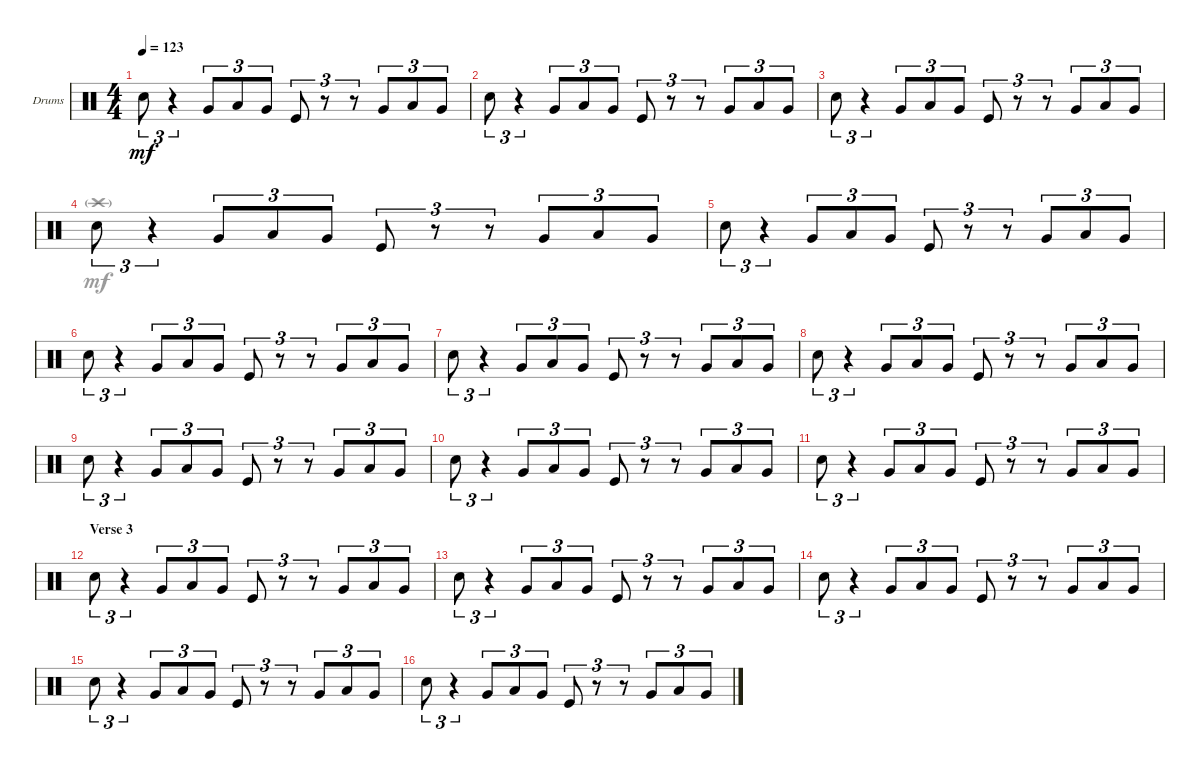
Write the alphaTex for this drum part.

\defaultSystemsLayout 4
\bracketExtendMode groupsimilarinstruments
\firstSystemTrackNameOrientation horizontal
\otherSystemsTrackNameOrientation horizontal
\track ("Drumkit" "Drums") {multiBarRest instrument percussion}
\staff {score}
\articulation defaults
\voice
\ts (4 4)
\tempo 123
\clef neutral
\ks c "Snare (hit) 2".8{tu (3 2) dy mf}
r.4{tu (3 2)} "Very Low Tom (hit)".8{tu (3 2)} "Low Tom (hit)".8{tu (3 2)} "Very Low Tom (hit)".8{tu (3 2)} "Kick (hit)".8{tu (3 2)} r.8{tu (3 2)} r.8{tu (3 2)} "Very Low Tom (hit)".8{tu (3 2)} "Low Tom (hit)".8{tu (3 2)} "Very Low Tom (hit)".8{tu (3 2)} |
"Snare (hit) 2".8{tu (3 2)} r.4{tu (3 2)} "Very Low Tom (hit)".8{tu (3 2)} "Low Tom (hit)".8{tu (3 2)} "Very Low Tom (hit)".8{tu (3 2)} "Kick (hit)".8{tu (3 2)} r.8{tu (3 2)} r.8{tu (3 2)} "Very Low Tom (hit)".8{tu (3 2)} "Low Tom (hit)".8{tu (3 2)} "Very Low Tom (hit)".8{tu (3 2)} |
"Snare (hit) 2".8{tu (3 2)} r.4{tu (3 2)} "Very Low Tom (hit)".8{tu (3 2)} "Low Tom (hit)".8{tu (3 2)} "Very Low Tom (hit)".8{tu (3 2)} "Kick (hit)".8{tu (3 2)} r.8{tu (3 2)} r.8{tu (3 2)} "Very Low Tom (hit)".8{tu (3 2)} "Low Tom (hit)".8{tu (3 2)} "Very Low Tom (hit)".8{tu (3 2)} |
"Snare (hit) 2".8{tu (3 2) beam invert} r.4{tu (3 2)} "Very Low Tom (hit)".8{tu (3 2)} "Low Tom (hit)".8{tu (3 2)} "Very Low Tom (hit)".8{tu (3 2)} "Kick (hit)".8{tu (3 2)} r.8{tu (3 2)} r.8{tu (3 2)} "Very Low Tom (hit)".8{tu (3 2)} "Low Tom (hit)".8{tu (3 2)} "Very Low Tom (hit)".8{tu (3 2)} |
"Snare (hit) 2".8{tu (3 2)} r.4{tu (3 2)} "Very Low Tom (hit)".8{tu (3 2)} "Low Tom (hit)".8{tu (3 2)} "Very Low Tom (hit)".8{tu (3 2)} "Kick (hit)".8{tu (3 2)} r.8{tu (3 2)} r.8{tu (3 2)} "Very Low Tom (hit)".8{tu (3 2)} "Low Tom (hit)".8{tu (3 2)} "Very Low Tom (hit)".8{tu (3 2)} |
"Snare (hit) 2".8{tu (3 2)} r.4{tu (3 2)} "Very Low Tom (hit)".8{tu (3 2)} "Low Tom (hit)".8{tu (3 2)} "Very Low Tom (hit)".8{tu (3 2)} "Kick (hit)".8{tu (3 2)} r.8{tu (3 2)} r.8{tu (3 2)} "Very Low Tom (hit)".8{tu (3 2)} "Low Tom (hit)".8{tu (3 2)} "Very Low Tom (hit)".8{tu (3 2)} |
"Snare (hit) 2".8{tu (3 2)} r.4{tu (3 2)} "Very Low Tom (hit)".8{tu (3 2)} "Low Tom (hit)".8{tu (3 2)} "Very Low Tom (hit)".8{tu (3 2)} "Kick (hit)".8{tu (3 2)} r.8{tu (3 2)} r.8{tu (3 2)} "Very Low Tom (hit)".8{tu (3 2)} "Low Tom (hit)".8{tu (3 2)} "Very Low Tom (hit)".8{tu (3 2)} |
"Snare (hit) 2".8{tu (3 2)} r.4{tu (3 2)} "Very Low Tom (hit)".8{tu (3 2)} "Low Tom (hit)".8{tu (3 2)} "Very Low Tom (hit)".8{tu (3 2)} "Kick (hit)".8{tu (3 2)} r.8{tu (3 2)} r.8{tu (3 2)} "Very Low Tom (hit)".8{tu (3 2)} "Low Tom (hit)".8{tu (3 2)} "Very Low Tom (hit)".8{tu (3 2)} |
"Snare (hit) 2".8{tu (3 2)} r.4{tu (3 2)} "Very Low Tom (hit)".8{tu (3 2)} "Low Tom (hit)".8{tu (3 2)} "Very Low Tom (hit)".8{tu (3 2)} "Kick (hit)".8{tu (3 2)} r.8{tu (3 2)} r.8{tu (3 2)} "Very Low Tom (hit)".8{tu (3 2)} "Low Tom (hit)".8{tu (3 2)} "Very Low Tom (hit)".8{tu (3 2)} |
"Snare (hit) 2".8{tu (3 2)} r.4{tu (3 2)} "Very Low Tom (hit)".8{tu (3 2)} "Low Tom (hit)".8{tu (3 2)} "Very Low Tom (hit)".8{tu (3 2)} "Kick (hit)".8{tu (3 2)} r.8{tu (3 2)} r.8{tu (3 2)} "Very Low Tom (hit)".8{tu (3 2)} "Low Tom (hit)".8{tu (3 2)} "Very Low Tom (hit)".8{tu (3 2)} |
"Snare (hit) 2".8{tu (3 2)} r.4{tu (3 2)} "Very Low Tom (hit)".8{tu (3 2)} "Low Tom (hit)".8{tu (3 2)} "Very Low Tom (hit)".8{tu (3 2)} "Kick (hit)".8{tu (3 2)} r.8{tu (3 2)} r.8{tu (3 2)} "Very Low Tom (hit)".8{tu (3 2)} "Low Tom (hit)".8{tu (3 2)} "Very Low Tom (hit)".8{tu (3 2)} |
\section ("" "Verse 3")
"Snare (hit) 2".8{tu (3 2)} r.4{tu (3 2)} "Very Low Tom (hit)".8{tu (3 2)} "Low Tom (hit)".8{tu (3 2)} "Very Low Tom (hit)".8{tu (3 2)} "Kick (hit)".8{tu (3 2)} r.8{tu (3 2)} r.8{tu (3 2)} "Very Low Tom (hit)".8{tu (3 2)} "Low Tom (hit)".8{tu (3 2)} "Very Low Tom (hit)".8{tu (3 2)} |
"Snare (hit) 2".8{tu (3 2)} r.4{tu (3 2)} "Very Low Tom (hit)".8{tu (3 2)} "Low Tom (hit)".8{tu (3 2)} "Very Low Tom (hit)".8{tu (3 2)} "Kick (hit)".8{tu (3 2)} r.8{tu (3 2)} r.8{tu (3 2)} "Very Low Tom (hit)".8{tu (3 2)} "Low Tom (hit)".8{tu (3 2)} "Very Low Tom (hit)".8{tu (3 2)} |
"Snare (hit) 2".8{tu (3 2)} r.4{tu (3 2)} "Very Low Tom (hit)".8{tu (3 2)} "Low Tom (hit)".8{tu (3 2)} "Very Low Tom (hit)".8{tu (3 2)} "Kick (hit)".8{tu (3 2)} r.8{tu (3 2)} r.8{tu (3 2)} "Very Low Tom (hit)".8{tu (3 2)} "Low Tom (hit)".8{tu (3 2)} "Very Low Tom (hit)".8{tu (3 2)} |
"Snare (hit) 2".8{tu (3 2)} r.4{tu (3 2)} "Very Low Tom (hit)".8{tu (3 2)} "Low Tom (hit)".8{tu (3 2)} "Very Low Tom (hit)".8{tu (3 2)} "Kick (hit)".8{tu (3 2)} r.8{tu (3 2)} r.8{tu (3 2)} "Very Low Tom (hit)".8{tu (3 2)} "Low Tom (hit)".8{tu (3 2)} "Very Low Tom (hit)".8{tu (3 2)} |
"Snare (hit) 2".8{tu (3 2)} r.4{tu (3 2)} "Very Low Tom (hit)".8{tu (3 2)} "Low Tom (hit)".8{tu (3 2)} "Very Low Tom (hit)".8{tu (3 2)} "Kick (hit)".8{tu (3 2)} r.8{tu (3 2)} r.8{tu (3 2)} "Very Low Tom (hit)".8{tu (3 2)} "Low Tom (hit)".8{tu (3 2)} "Very Low Tom (hit)".8{tu (3 2)}
\voice
\clef neutral
\ottava regular
\simile none
\ks c
|
|
|
"Crash high (hit)"{g}.1 |
|
|
|
|
|
|
|
|
|
|
|
